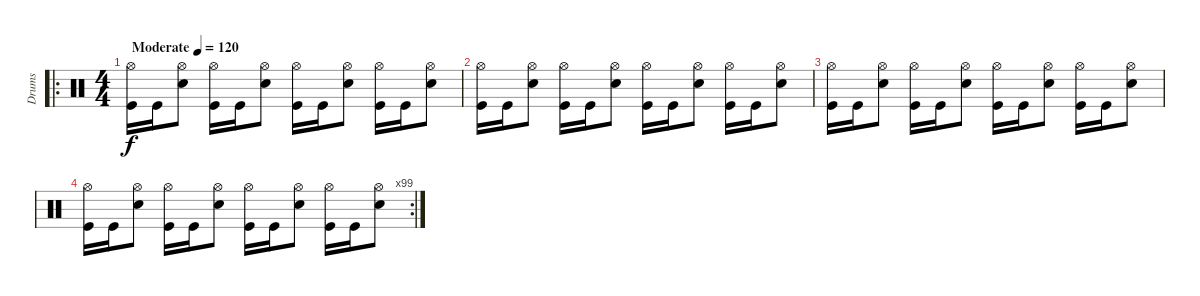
\track ("Drums" "Drums") {instrument percussion}
\staff {score}
\articulation defaults
\ro
\ts (4 4)
\tempo (120 "Moderate")
\clef neutral
\ks c
("Hi-Hat (open)" "Kick (hit)").16{dy f} "Kick (hit)".16 ("Hi-Hat (open)" "Snare (hit) 2").8 ("Hi-Hat (open)" "Kick (hit)").16 "Kick (hit)".16 ("Hi-Hat (open)" "Snare (hit) 2").8 ("Hi-Hat (open)" "Kick (hit)").16 "Kick (hit)".16 ("Hi-Hat (open)" "Snare (hit) 2").8 ("Hi-Hat (open)" "Kick (hit)").16 "Kick (hit)".16 ("Hi-Hat (open)" "Snare (hit) 2").8 |
("Hi-Hat (open)" "Kick (hit)").16 "Kick (hit)".16 ("Hi-Hat (open)" "Snare (hit) 2").8 ("Hi-Hat (open)" "Kick (hit)").16 "Kick (hit)".16 ("Hi-Hat (open)" "Snare (hit) 2").8 ("Hi-Hat (open)" "Kick (hit)").16 "Kick (hit)".16 ("Hi-Hat (open)" "Snare (hit) 2").8 ("Hi-Hat (open)" "Kick (hit)").16 "Kick (hit)".16 ("Hi-Hat (open)" "Snare (hit) 2").8 |
("Hi-Hat (open)" "Kick (hit)").16 "Kick (hit)".16 ("Hi-Hat (open)" "Snare (hit) 2").8 ("Hi-Hat (open)" "Kick (hit)").16 "Kick (hit)".16 ("Hi-Hat (open)" "Snare (hit) 2").8 ("Hi-Hat (open)" "Kick (hit)").16 "Kick (hit)".16 ("Hi-Hat (open)" "Snare (hit) 2").8 ("Hi-Hat (open)" "Kick (hit)").16 "Kick (hit)".16 ("Hi-Hat (open)" "Snare (hit) 2").8 |
\rc 99
("Hi-Hat (open)" "Kick (hit)").16 "Kick (hit)".16 ("Hi-Hat (open)" "Snare (hit) 2").8 ("Hi-Hat (open)" "Kick (hit)").16 "Kick (hit)".16 ("Hi-Hat (open)" "Snare (hit) 2").8 ("Hi-Hat (open)" "Kick (hit)").16 "Kick (hit)".16 ("Hi-Hat (open)" "Snare (hit) 2").8 ("Hi-Hat (open)" "Kick (hit)").16 "Kick (hit)".16 ("Hi-Hat (open)" "Snare (hit) 2").8
